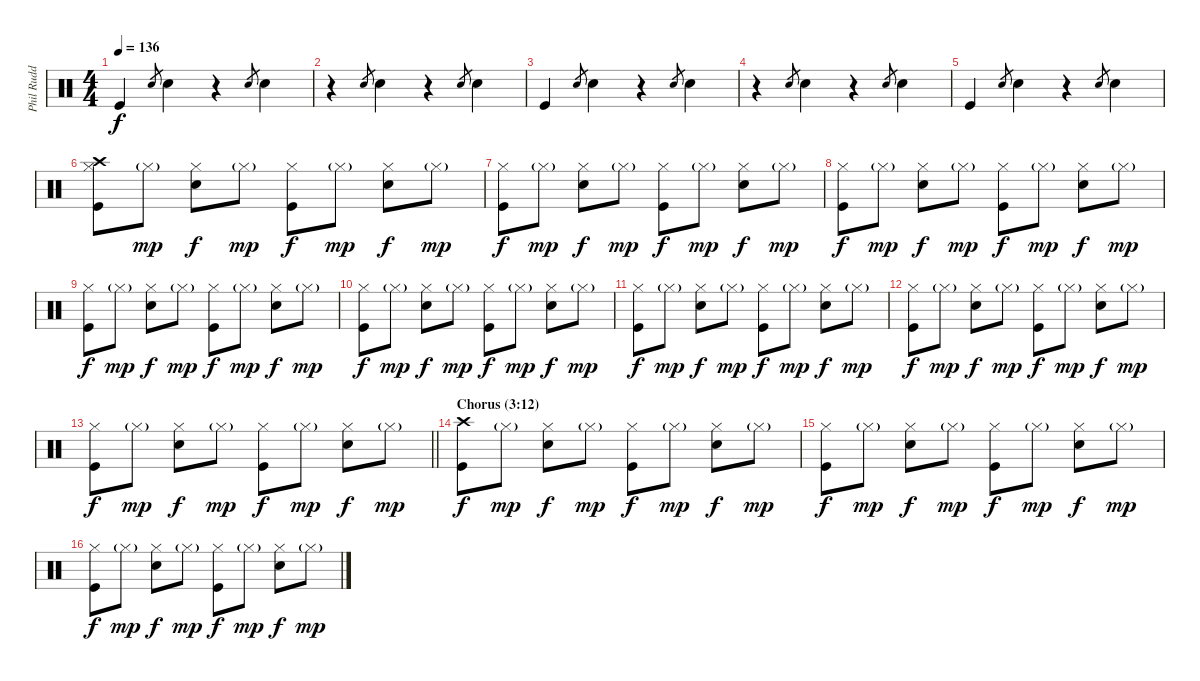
\track ("Phil Rudd" "Phil Rudd") {instrument percussion}
\staff {score}
\articulation defaults
\ts (4 4)
\tempo 136
\clef neutral
\ks c "Kick (hit)".4{dy f} "Electric Snare (hit)".8{gr} "Electric Snare (hit)".4
r.4 "Electric Snare (hit)".8{gr} "Electric Snare (hit)".4 |
r.4 "Electric Snare (hit)".8{gr} "Electric Snare (hit)".4 r.4 "Electric Snare (hit)".8{gr} "Electric Snare (hit)".4 |
"Kick (hit)".4 "Electric Snare (hit)".8{gr} "Electric Snare (hit)".4 r.4 "Electric Snare (hit)".8{gr} "Electric Snare (hit)".4 |
r.4 "Electric Snare (hit)".8{gr} "Electric Snare (hit)".4 r.4 "Electric Snare (hit)".8{gr} "Electric Snare (hit)".4 |
"Kick (hit)".4 "Electric Snare (hit)".8{gr} "Electric Snare (hit)".4 r.4 "Electric Snare (hit)".8{gr} "Electric Snare (hit)".4 |
("Crash high (hit)" "Hi-Hat (closed)" "Kick (hit)").8 "Hi-Hat (closed)"{g}.8{dy mp} ("Hi-Hat (closed)" "Electric Snare (hit)").8{dy f} "Hi-Hat (closed)"{g}.8{dy mp} ("Hi-Hat (closed)" "Kick (hit)").8{dy f} "Hi-Hat (closed)"{g}.8{dy mp} ("Hi-Hat (closed)" "Electric Snare (hit)").8{dy f} "Hi-Hat (closed)"{g}.8{dy mp} |
("Hi-Hat (closed)" "Kick (hit)").8{dy f} "Hi-Hat (closed)"{g}.8{dy mp} ("Hi-Hat (closed)" "Electric Snare (hit)").8{dy f} "Hi-Hat (closed)"{g}.8{dy mp} ("Hi-Hat (closed)" "Kick (hit)").8{dy f} "Hi-Hat (closed)"{g}.8{dy mp} ("Hi-Hat (closed)" "Electric Snare (hit)").8{dy f} "Hi-Hat (closed)"{g}.8{dy mp} |
("Hi-Hat (closed)" "Kick (hit)").8{dy f} "Hi-Hat (closed)"{g}.8{dy mp} ("Hi-Hat (closed)" "Electric Snare (hit)").8{dy f} "Hi-Hat (closed)"{g}.8{dy mp} ("Hi-Hat (closed)" "Kick (hit)").8{dy f} "Hi-Hat (closed)"{g}.8{dy mp} ("Hi-Hat (closed)" "Electric Snare (hit)").8{dy f} "Hi-Hat (closed)"{g}.8{dy mp} |
("Hi-Hat (closed)" "Kick (hit)").8{dy f} "Hi-Hat (closed)"{g}.8{dy mp} ("Hi-Hat (closed)" "Electric Snare (hit)").8{dy f} "Hi-Hat (closed)"{g}.8{dy mp} ("Hi-Hat (closed)" "Kick (hit)").8{dy f} "Hi-Hat (closed)"{g}.8{dy mp} ("Hi-Hat (closed)" "Electric Snare (hit)").8{dy f} "Hi-Hat (closed)"{g}.8{dy mp} |
("Hi-Hat (closed)" "Kick (hit)").8{dy f} "Hi-Hat (closed)"{g}.8{dy mp} ("Hi-Hat (closed)" "Electric Snare (hit)").8{dy f} "Hi-Hat (closed)"{g}.8{dy mp} ("Hi-Hat (closed)" "Kick (hit)").8{dy f} "Hi-Hat (closed)"{g}.8{dy mp} ("Hi-Hat (closed)" "Electric Snare (hit)").8{dy f} "Hi-Hat (closed)"{g}.8{dy mp} |
("Hi-Hat (closed)" "Kick (hit)").8{dy f} "Hi-Hat (closed)"{g}.8{dy mp} ("Hi-Hat (closed)" "Electric Snare (hit)").8{dy f} "Hi-Hat (closed)"{g}.8{dy mp} ("Hi-Hat (closed)" "Kick (hit)").8{dy f} "Hi-Hat (closed)"{g}.8{dy mp} ("Hi-Hat (closed)" "Electric Snare (hit)").8{dy f} "Hi-Hat (closed)"{g}.8{dy mp} |
("Hi-Hat (closed)" "Kick (hit)").8{dy f} "Hi-Hat (closed)"{g}.8{dy mp} ("Hi-Hat (closed)" "Electric Snare (hit)").8{dy f} "Hi-Hat (closed)"{g}.8{dy mp} ("Hi-Hat (closed)" "Kick (hit)").8{dy f} "Hi-Hat (closed)"{g}.8{dy mp} ("Hi-Hat (closed)" "Electric Snare (hit)").8{dy f} "Hi-Hat (closed)"{g}.8{dy mp} |
\barLineRight lightlight
("Hi-Hat (closed)" "Kick (hit)").8{dy f} "Hi-Hat (closed)"{g}.8{dy mp} ("Hi-Hat (closed)" "Electric Snare (hit)").8{dy f} "Hi-Hat (closed)"{g}.8{dy mp} ("Hi-Hat (closed)" "Kick (hit)").8{dy f} "Hi-Hat (closed)"{g}.8{dy mp} ("Hi-Hat (closed)" "Electric Snare (hit)").8{dy f} "Hi-Hat (closed)"{g}.8{dy mp} |
\section ("" "Chorus (3:12)")
("Crash high (hit)" "Kick (hit)").8{dy f} "Hi-Hat (closed)"{g}.8{dy mp} ("Hi-Hat (closed)" "Electric Snare (hit)").8{dy f} "Hi-Hat (closed)"{g}.8{dy mp} ("Hi-Hat (closed)" "Kick (hit)").8{dy f} "Hi-Hat (closed)"{g}.8{dy mp} ("Hi-Hat (closed)" "Electric Snare (hit)").8{dy f} "Hi-Hat (closed)"{g}.8{dy mp} |
("Hi-Hat (closed)" "Kick (hit)").8{dy f} "Hi-Hat (closed)"{g}.8{dy mp} ("Hi-Hat (closed)" "Electric Snare (hit)").8{dy f} "Hi-Hat (closed)"{g}.8{dy mp} ("Hi-Hat (closed)" "Kick (hit)").8{dy f} "Hi-Hat (closed)"{g}.8{dy mp} ("Hi-Hat (closed)" "Electric Snare (hit)").8{dy f} "Hi-Hat (closed)"{g}.8{dy mp} |
("Hi-Hat (closed)" "Kick (hit)").8{dy f} "Hi-Hat (closed)"{g}.8{dy mp} ("Hi-Hat (closed)" "Electric Snare (hit)").8{dy f} "Hi-Hat (closed)"{g}.8{dy mp} ("Hi-Hat (closed)" "Kick (hit)").8{dy f} "Hi-Hat (closed)"{g}.8{dy mp} ("Hi-Hat (closed)" "Electric Snare (hit)").8{dy f} "Hi-Hat (closed)"{g}.8{dy mp}
